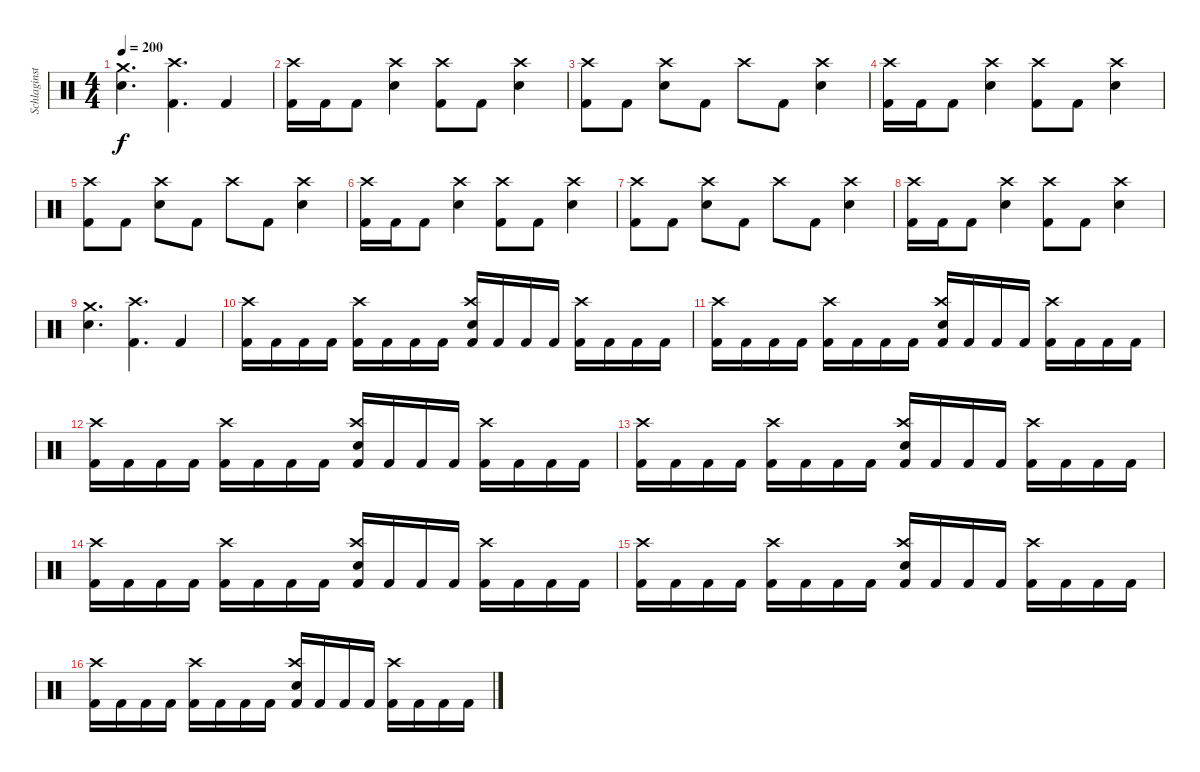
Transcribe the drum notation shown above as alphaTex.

\track ("Schlaginstrumente - Auswahl" "Schlaginst") {instrument percussion}
\staff {score}
\articulation defaults
\ts (4 4)
\tempo 200
\clef neutral
\ks c
("Crash medium (hit)" "Snare (hit) 2").4{d dy f} ("Crash high (hit)" "Kick (hit) 2").4{d} "Kick (hit) 2".4 |
("Crash high (hit)" "Kick (hit) 2").16 "Kick (hit) 2".16 "Kick (hit) 2".8 ("Crash high (hit)" "Snare (hit) 2").4 ("Crash high (hit)" "Kick (hit) 2").8 "Kick (hit) 2".8 ("Crash high (hit)" "Snare (hit) 2").4 |
("Crash high (hit)" "Kick (hit) 2").8 "Kick (hit) 2".8 ("Crash high (hit)" "Snare (hit) 2").8 "Kick (hit) 2".8 "Crash high (hit)".8 "Kick (hit) 2".8 ("Crash high (hit)" "Snare (hit) 2").4 |
("Crash high (hit)" "Kick (hit) 2").16 "Kick (hit) 2".16 "Kick (hit) 2".8 ("Crash high (hit)" "Snare (hit) 2").4 ("Crash high (hit)" "Kick (hit) 2").8 "Kick (hit) 2".8 ("Crash high (hit)" "Snare (hit) 2").4 |
("Crash high (hit)" "Kick (hit) 2").8 "Kick (hit) 2".8 ("Crash high (hit)" "Snare (hit) 2").8 "Kick (hit) 2".8 "Crash high (hit)".8 "Kick (hit) 2".8 ("Crash high (hit)" "Snare (hit) 2").4 |
("Crash high (hit)" "Kick (hit) 2").16 "Kick (hit) 2".16 "Kick (hit) 2".8 ("Crash high (hit)" "Snare (hit) 2").4 ("Crash high (hit)" "Kick (hit) 2").8 "Kick (hit) 2".8 ("Crash high (hit)" "Snare (hit) 2").4 |
("Crash high (hit)" "Kick (hit) 2").8 "Kick (hit) 2".8 ("Crash high (hit)" "Snare (hit) 2").8 "Kick (hit) 2".8 "Crash high (hit)".8 "Kick (hit) 2".8 ("Crash high (hit)" "Snare (hit) 2").4 |
("Crash high (hit)" "Kick (hit) 2").16 "Kick (hit) 2".16 "Kick (hit) 2".8 ("Crash high (hit)" "Snare (hit) 2").4 ("Crash high (hit)" "Kick (hit) 2").8 "Kick (hit) 2".8 ("Crash high (hit)" "Snare (hit) 2").4 |
("Crash medium (hit)" "Snare (hit) 2").4{d} ("Crash high (hit)" "Kick (hit) 2").4{d} "Kick (hit) 2".4 |
("Crash high (hit)" "Kick (hit) 2").16 "Kick (hit) 2".16 "Kick (hit) 2".16 "Kick (hit) 2".16 ("Crash high (hit)" "Kick (hit) 2").16 "Kick (hit) 2".16 "Kick (hit) 2".16 "Kick (hit) 2".16 ("Crash high (hit)" "Snare (hit) 2" "Kick (hit) 2").16 "Kick (hit) 2".16 "Kick (hit) 2".16 "Kick (hit) 2".16 ("Crash high (hit)" "Kick (hit) 2").16 "Kick (hit) 2".16 "Kick (hit) 2".16 "Kick (hit) 2".16 |
("Crash high (hit)" "Kick (hit) 2").16 "Kick (hit) 2".16 "Kick (hit) 2".16 "Kick (hit) 2".16 ("Crash high (hit)" "Kick (hit) 2").16 "Kick (hit) 2".16 "Kick (hit) 2".16 "Kick (hit) 2".16 ("Crash high (hit)" "Snare (hit) 2" "Kick (hit) 2").16 "Kick (hit) 2".16 "Kick (hit) 2".16 "Kick (hit) 2".16 ("Crash high (hit)" "Kick (hit) 2").16 "Kick (hit) 2".16 "Kick (hit) 2".16 "Kick (hit) 2".16 |
("Crash high (hit)" "Kick (hit) 2").16 "Kick (hit) 2".16 "Kick (hit) 2".16 "Kick (hit) 2".16 ("Crash high (hit)" "Kick (hit) 2").16 "Kick (hit) 2".16 "Kick (hit) 2".16 "Kick (hit) 2".16 ("Crash high (hit)" "Snare (hit) 2" "Kick (hit) 2").16 "Kick (hit) 2".16 "Kick (hit) 2".16 "Kick (hit) 2".16 ("Crash high (hit)" "Kick (hit) 2").16 "Kick (hit) 2".16 "Kick (hit) 2".16 "Kick (hit) 2".16 |
("Crash high (hit)" "Kick (hit) 2").16 "Kick (hit) 2".16 "Kick (hit) 2".16 "Kick (hit) 2".16 ("Crash high (hit)" "Kick (hit) 2").16 "Kick (hit) 2".16 "Kick (hit) 2".16 "Kick (hit) 2".16 ("Crash high (hit)" "Snare (hit) 2" "Kick (hit) 2").16 "Kick (hit) 2".16 "Kick (hit) 2".16 "Kick (hit) 2".16 ("Crash high (hit)" "Kick (hit) 2").16 "Kick (hit) 2".16 "Kick (hit) 2".16 "Kick (hit) 2".16 |
("Crash high (hit)" "Kick (hit) 2").16 "Kick (hit) 2".16 "Kick (hit) 2".16 "Kick (hit) 2".16 ("Crash high (hit)" "Kick (hit) 2").16 "Kick (hit) 2".16 "Kick (hit) 2".16 "Kick (hit) 2".16 ("Crash high (hit)" "Snare (hit) 2" "Kick (hit) 2").16 "Kick (hit) 2".16 "Kick (hit) 2".16 "Kick (hit) 2".16 ("Crash high (hit)" "Kick (hit) 2").16 "Kick (hit) 2".16 "Kick (hit) 2".16 "Kick (hit) 2".16 |
("Crash high (hit)" "Kick (hit) 2").16 "Kick (hit) 2".16 "Kick (hit) 2".16 "Kick (hit) 2".16 ("Crash high (hit)" "Kick (hit) 2").16 "Kick (hit) 2".16 "Kick (hit) 2".16 "Kick (hit) 2".16 ("Crash high (hit)" "Snare (hit) 2" "Kick (hit) 2").16 "Kick (hit) 2".16 "Kick (hit) 2".16 "Kick (hit) 2".16 ("Crash high (hit)" "Kick (hit) 2").16 "Kick (hit) 2".16 "Kick (hit) 2".16 "Kick (hit) 2".16 |
("Crash high (hit)" "Kick (hit) 2").16 "Kick (hit) 2".16 "Kick (hit) 2".16 "Kick (hit) 2".16 ("Crash high (hit)" "Kick (hit) 2").16 "Kick (hit) 2".16 "Kick (hit) 2".16 "Kick (hit) 2".16 ("Crash high (hit)" "Snare (hit) 2" "Kick (hit) 2").16 "Kick (hit) 2".16 "Kick (hit) 2".16 "Kick (hit) 2".16 ("Crash high (hit)" "Kick (hit) 2").16 "Kick (hit) 2".16 "Kick (hit) 2".16 "Kick (hit) 2".16
